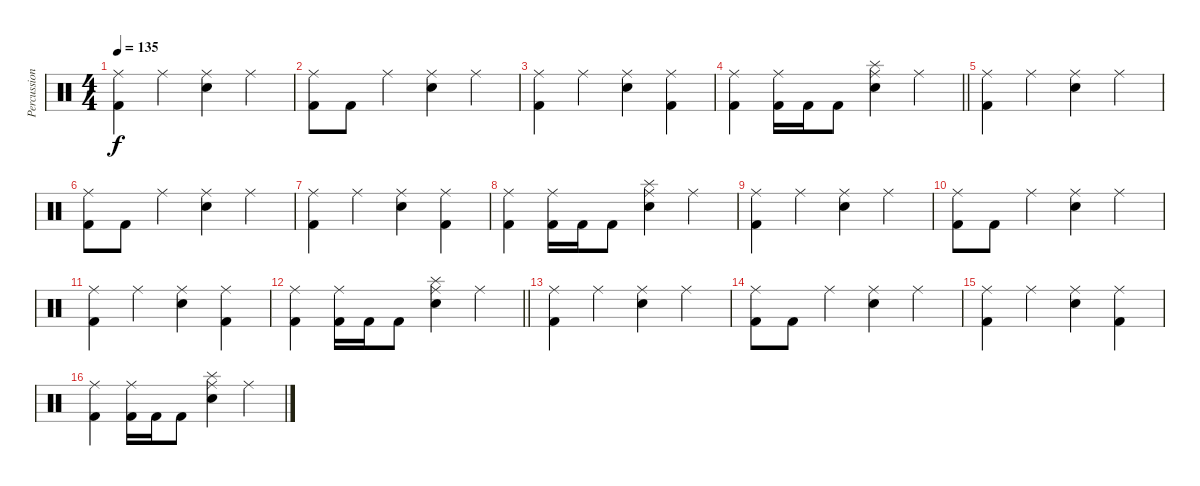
\track ("Percussion" "Percussion") {instrument percussion}
\staff {score}
\articulation defaults
\ts (4 4)
\tempo 135
\clef neutral
\ks c
("Kick (hit) 2" "Ride (middle)").4{dy f} "Ride (middle)".4 ("Electric Snare (hit)" "Ride (middle)").4 "Ride (middle)".4 |
("Kick (hit) 2" "Ride (middle)").8 "Kick (hit) 2".8 "Ride (middle)".4 ("Electric Snare (hit)" "Ride (middle)").4 "Ride (middle)".4 |
("Kick (hit) 2" "Ride (middle)").4 "Ride (middle)".4 ("Electric Snare (hit)" "Ride (middle)").4 ("Kick (hit) 2" "Ride (middle)").4 |
\barLineRight lightlight
("Kick (hit) 2" "Ride (middle)").4 ("Kick (hit) 2" "Ride (middle)").16 "Kick (hit) 2".16 "Kick (hit) 2".8 ("Electric Snare (hit)" "Ride (middle)" "Splash (hit)").4 "Ride (middle)".4 |
\section ("" "")
("Kick (hit) 2" "Ride (middle)").4 "Ride (middle)".4 ("Electric Snare (hit)" "Ride (middle)").4 "Ride (middle)".4 |
("Kick (hit) 2" "Ride (middle)").8 "Kick (hit) 2".8 "Ride (middle)".4 ("Electric Snare (hit)" "Ride (middle)").4 "Ride (middle)".4 |
("Kick (hit) 2" "Ride (middle)").4 "Ride (middle)".4 ("Electric Snare (hit)" "Ride (middle)").4 ("Kick (hit) 2" "Ride (middle)").4 |
("Kick (hit) 2" "Ride (middle)").4 ("Kick (hit) 2" "Ride (middle)").16 "Kick (hit) 2".16 "Kick (hit) 2".8 ("Electric Snare (hit)" "Ride (middle)" "Splash (hit)").4 "Ride (middle)".4 |
("Kick (hit) 2" "Ride (middle)").4 "Ride (middle)".4 ("Electric Snare (hit)" "Ride (middle)").4 "Ride (middle)".4 |
("Kick (hit) 2" "Ride (middle)").8 "Kick (hit) 2".8 "Ride (middle)".4 ("Electric Snare (hit)" "Ride (middle)").4 "Ride (middle)".4 |
("Kick (hit) 2" "Ride (middle)").4 "Ride (middle)".4 ("Electric Snare (hit)" "Ride (middle)").4 ("Kick (hit) 2" "Ride (middle)").4 |
\barLineRight lightlight
("Kick (hit) 2" "Ride (middle)").4 ("Kick (hit) 2" "Ride (middle)").16 "Kick (hit) 2".16 "Kick (hit) 2".8 ("Electric Snare (hit)" "Ride (middle)" "Splash (hit)").4 "Ride (middle)".4 |
\section ("" "")
("Kick (hit) 2" "Ride (middle)").4 "Ride (middle)".4 ("Electric Snare (hit)" "Ride (middle)").4 "Ride (middle)".4 |
("Kick (hit) 2" "Ride (middle)").8 "Kick (hit) 2".8 "Ride (middle)".4 ("Electric Snare (hit)" "Ride (middle)").4 "Ride (middle)".4 |
("Kick (hit) 2" "Ride (middle)").4 "Ride (middle)".4 ("Electric Snare (hit)" "Ride (middle)").4 ("Kick (hit) 2" "Ride (middle)").4 |
("Kick (hit) 2" "Ride (middle)").4 ("Kick (hit) 2" "Ride (middle)").16 "Kick (hit) 2".16 "Kick (hit) 2".8 ("Electric Snare (hit)" "Ride (middle)" "Splash (hit)").4 "Ride (middle)".4
